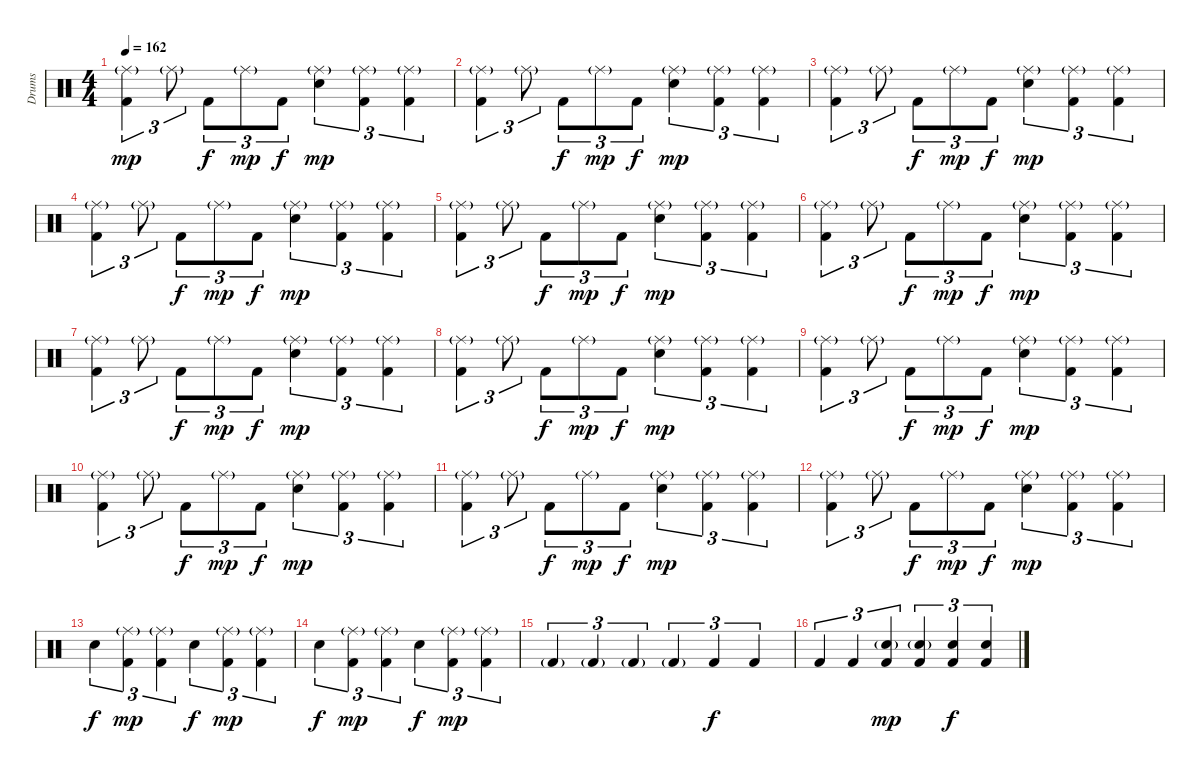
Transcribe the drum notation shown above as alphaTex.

\track ("Drums" "Drums") {instrument percussion}
\staff {score}
\articulation defaults
\ts (4 4)
\tempo 162
\clef neutral
\ks c
("Ride (middle)"{g} "Kick (hit) 2").4{tu (3 2) dy mp} "Ride (middle)"{g}.8{tu (3 2)} "Kick (hit) 2".8{tu (3 2) dy f} "Ride (middle)"{g}.8{tu (3 2) dy mp} "Kick (hit) 2".8{tu (3 2) dy f} ("Ride (middle)"{g} "Electric Snare (hit)").4{tu (3 2) dy mp} ("Ride (middle)"{g} "Kick (hit) 2").4{tu (3 2)} ("Ride (middle)"{g} "Kick (hit) 2").4{tu (3 2)} |
("Ride (middle)"{g} "Kick (hit) 2").4{tu (3 2)} "Ride (middle)"{g}.8{tu (3 2)} "Kick (hit) 2".8{tu (3 2) dy f} "Ride (middle)"{g}.8{tu (3 2) dy mp} "Kick (hit) 2".8{tu (3 2) dy f} ("Ride (middle)"{g} "Electric Snare (hit)").4{tu (3 2) dy mp} ("Ride (middle)"{g} "Kick (hit) 2").4{tu (3 2)} ("Ride (middle)"{g} "Kick (hit) 2").4{tu (3 2)} |
("Ride (middle)"{g} "Kick (hit) 2").4{tu (3 2)} "Ride (middle)"{g}.8{tu (3 2)} "Kick (hit) 2".8{tu (3 2) dy f} "Ride (middle)"{g}.8{tu (3 2) dy mp} "Kick (hit) 2".8{tu (3 2) dy f} ("Ride (middle)"{g} "Electric Snare (hit)").4{tu (3 2) dy mp} ("Ride (middle)"{g} "Kick (hit) 2").4{tu (3 2)} ("Ride (middle)"{g} "Kick (hit) 2").4{tu (3 2)} |
("Ride (middle)"{g} "Kick (hit) 2").4{tu (3 2)} "Ride (middle)"{g}.8{tu (3 2)} "Kick (hit) 2".8{tu (3 2) dy f} "Ride (middle)"{g}.8{tu (3 2) dy mp} "Kick (hit) 2".8{tu (3 2) dy f} ("Ride (middle)"{g} "Electric Snare (hit)").4{tu (3 2) dy mp} ("Ride (middle)"{g} "Kick (hit) 2").4{tu (3 2)} ("Ride (middle)"{g} "Kick (hit) 2").4{tu (3 2)} |
("Ride (middle)"{g} "Kick (hit) 2").4{tu (3 2)} "Ride (middle)"{g}.8{tu (3 2)} "Kick (hit) 2".8{tu (3 2) dy f} "Ride (middle)"{g}.8{tu (3 2) dy mp} "Kick (hit) 2".8{tu (3 2) dy f} ("Ride (middle)"{g} "Electric Snare (hit)").4{tu (3 2) dy mp} ("Ride (middle)"{g} "Kick (hit) 2").4{tu (3 2)} ("Ride (middle)"{g} "Kick (hit) 2").4{tu (3 2)} |
("Ride (middle)"{g} "Kick (hit) 2").4{tu (3 2)} "Ride (middle)"{g}.8{tu (3 2)} "Kick (hit) 2".8{tu (3 2) dy f} "Ride (middle)"{g}.8{tu (3 2) dy mp} "Kick (hit) 2".8{tu (3 2) dy f} ("Ride (middle)"{g} "Electric Snare (hit)").4{tu (3 2) dy mp} ("Ride (middle)"{g} "Kick (hit) 2").4{tu (3 2)} ("Ride (middle)"{g} "Kick (hit) 2").4{tu (3 2)} |
("Ride (middle)"{g} "Kick (hit) 2").4{tu (3 2)} "Ride (middle)"{g}.8{tu (3 2)} "Kick (hit) 2".8{tu (3 2) dy f} "Ride (middle)"{g}.8{tu (3 2) dy mp} "Kick (hit) 2".8{tu (3 2) dy f} ("Ride (middle)"{g} "Electric Snare (hit)").4{tu (3 2) dy mp} ("Ride (middle)"{g} "Kick (hit) 2").4{tu (3 2)} ("Ride (middle)"{g} "Kick (hit) 2").4{tu (3 2)} |
("Ride (middle)"{g} "Kick (hit) 2").4{tu (3 2)} "Ride (middle)"{g}.8{tu (3 2)} "Kick (hit) 2".8{tu (3 2) dy f} "Ride (middle)"{g}.8{tu (3 2) dy mp} "Kick (hit) 2".8{tu (3 2) dy f} ("Ride (middle)"{g} "Electric Snare (hit)").4{tu (3 2) dy mp} ("Ride (middle)"{g} "Kick (hit) 2").4{tu (3 2)} ("Ride (middle)"{g} "Kick (hit) 2").4{tu (3 2)} |
("Ride (middle)"{g} "Kick (hit) 2").4{tu (3 2)} "Ride (middle)"{g}.8{tu (3 2)} "Kick (hit) 2".8{tu (3 2) dy f} "Ride (middle)"{g}.8{tu (3 2) dy mp} "Kick (hit) 2".8{tu (3 2) dy f} ("Ride (middle)"{g} "Electric Snare (hit)").4{tu (3 2) dy mp} ("Ride (middle)"{g} "Kick (hit) 2").4{tu (3 2)} ("Ride (middle)"{g} "Kick (hit) 2").4{tu (3 2)} |
("Ride (middle)"{g} "Kick (hit) 2").4{tu (3 2)} "Ride (middle)"{g}.8{tu (3 2)} "Kick (hit) 2".8{tu (3 2) dy f} "Ride (middle)"{g}.8{tu (3 2) dy mp} "Kick (hit) 2".8{tu (3 2) dy f} ("Ride (middle)"{g} "Electric Snare (hit)").4{tu (3 2) dy mp} ("Ride (middle)"{g} "Kick (hit) 2").4{tu (3 2)} ("Ride (middle)"{g} "Kick (hit) 2").4{tu (3 2)} |
("Ride (middle)"{g} "Kick (hit) 2").4{tu (3 2)} "Ride (middle)"{g}.8{tu (3 2)} "Kick (hit) 2".8{tu (3 2) dy f} "Ride (middle)"{g}.8{tu (3 2) dy mp} "Kick (hit) 2".8{tu (3 2) dy f} ("Ride (middle)"{g} "Electric Snare (hit)").4{tu (3 2) dy mp} ("Ride (middle)"{g} "Kick (hit) 2").4{tu (3 2)} ("Ride (middle)"{g} "Kick (hit) 2").4{tu (3 2)} |
("Ride (middle)"{g} "Kick (hit) 2").4{tu (3 2)} "Ride (middle)"{g}.8{tu (3 2)} "Kick (hit) 2".8{tu (3 2) dy f} "Ride (middle)"{g}.8{tu (3 2) dy mp} "Kick (hit) 2".8{tu (3 2) dy f} ("Ride (middle)"{g} "Electric Snare (hit)").4{tu (3 2) dy mp} ("Ride (middle)"{g} "Kick (hit) 2").4{tu (3 2)} ("Ride (middle)"{g} "Kick (hit) 2").4{tu (3 2)} |
"Electric Snare (hit)".4{tu (3 2) dy f} ("Ride (middle)"{g} "Kick (hit) 2").4{tu (3 2) dy mp} ("Ride (middle)"{g} "Kick (hit) 2").4{tu (3 2)} "Electric Snare (hit)".4{tu (3 2) dy f} ("Ride (middle)"{g} "Kick (hit) 2").4{tu (3 2) dy mp} ("Ride (middle)"{g} "Kick (hit) 2").4{tu (3 2)} |
"Electric Snare (hit)".4{tu (3 2) dy f} ("Ride (middle)"{g} "Kick (hit) 2").4{tu (3 2) dy mp} ("Ride (middle)"{g} "Kick (hit) 2").4{tu (3 2)} "Electric Snare (hit)".4{tu (3 2) dy f} ("Ride (middle)"{g} "Kick (hit) 2").4{tu (3 2) dy mp} ("Ride (middle)"{g} "Kick (hit) 2").4{tu (3 2)} |
"Kick (hit) 2"{g}.4{tu (3 2)} "Kick (hit) 2"{g}.4{tu (3 2)} "Kick (hit) 2"{g}.4{tu (3 2)} "Kick (hit) 2"{g}.4{tu (3 2)} "Kick (hit) 2".4{tu (3 2) dy f} "Kick (hit) 2".4{tu (3 2)} |
"Kick (hit) 2".4{tu (3 2)} "Kick (hit) 2".4{tu (3 2)} ("Electric Snare (hit)"{g} "Kick (hit) 2").4{tu (3 2) dy mp} ("Electric Snare (hit)"{g} "Kick (hit) 2").4{tu (3 2)} ("Electric Snare (hit)" "Kick (hit) 2").4{tu (3 2) dy f} ("Electric Snare (hit)" "Kick (hit) 2").4{tu (3 2)}
